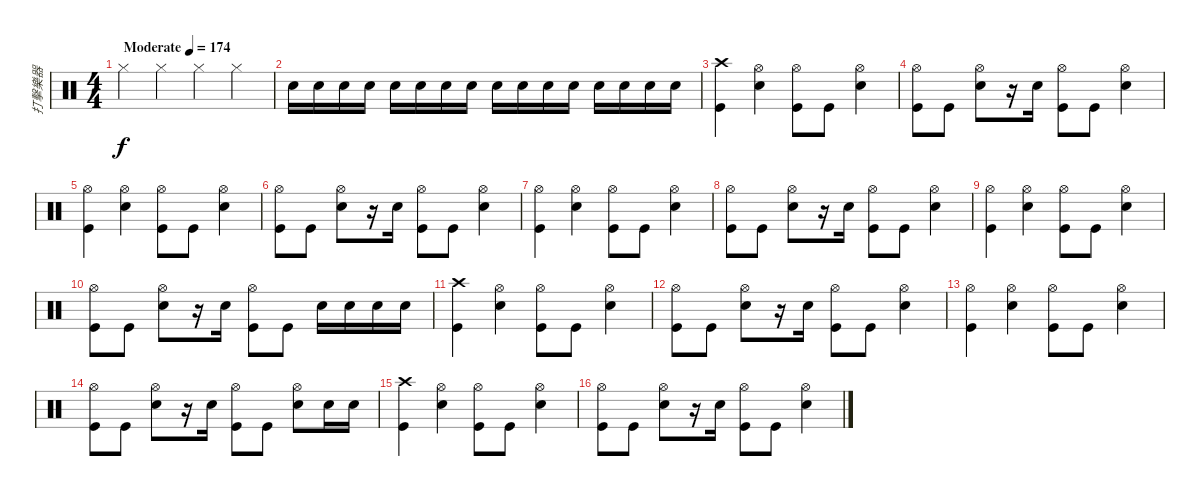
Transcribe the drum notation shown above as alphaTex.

\track ("打擊樂器" "打擊樂器") {instrument percussion}
\staff {score}
\articulation defaults
\ts (4 4)
\tempo (174 "Moderate")
\clef neutral
\ks c "Hi-Hat (closed)".4{dy f} "Hi-Hat (closed)".4 "Hi-Hat (closed)".4 "Hi-Hat (closed)".4
|
"Snare (hit) 2".16 "Snare (hit) 2".16 "Snare (hit) 2".16 "Snare (hit) 2".16 "Snare (hit) 2".16 "Snare (hit) 2".16 "Snare (hit) 2".16 "Snare (hit) 2".16 "Snare (hit) 2".16 "Snare (hit) 2".16 "Snare (hit) 2".16 "Snare (hit) 2".16 "Snare (hit) 2".16 "Snare (hit) 2".16 "Snare (hit) 2".16 "Snare (hit) 2".16 |
("Crash high (hit)" "Kick (hit)").4 ("Hi-Hat (open)" "Snare (hit) 2").4 ("Kick (hit)" "Hi-Hat (open)").8 "Kick (hit)".8 ("Hi-Hat (open)" "Snare (hit) 2").4 |
("Hi-Hat (open)" "Kick (hit)").8 "Kick (hit)".8 ("Hi-Hat (open)" "Snare (hit) 2").8 r.16 "Snare (hit) 2".16 ("Hi-Hat (open)" "Kick (hit)").8 "Kick (hit)".8 ("Hi-Hat (open)" "Snare (hit) 2").4 |
("Hi-Hat (open)" "Kick (hit)").4 ("Hi-Hat (open)" "Snare (hit) 2").4 ("Kick (hit)" "Hi-Hat (open)").8 "Kick (hit)".8 ("Hi-Hat (open)" "Snare (hit) 2").4 |
("Hi-Hat (open)" "Kick (hit)").8 "Kick (hit)".8 ("Hi-Hat (open)" "Snare (hit) 2").8 r.16 "Snare (hit) 2".16 ("Hi-Hat (open)" "Kick (hit)").8 "Kick (hit)".8 ("Hi-Hat (open)" "Snare (hit) 2").4 |
("Hi-Hat (open)" "Kick (hit)").4 ("Hi-Hat (open)" "Snare (hit) 2").4 ("Kick (hit)" "Hi-Hat (open)").8 "Kick (hit)".8 ("Hi-Hat (open)" "Snare (hit) 2").4 |
("Hi-Hat (open)" "Kick (hit)").8 "Kick (hit)".8 ("Hi-Hat (open)" "Snare (hit) 2").8 r.16 "Snare (hit) 2".16 ("Hi-Hat (open)" "Kick (hit)").8 "Kick (hit)".8 ("Hi-Hat (open)" "Snare (hit) 2").4 |
("Hi-Hat (open)" "Kick (hit)").4 ("Hi-Hat (open)" "Snare (hit) 2").4 ("Kick (hit)" "Hi-Hat (open)").8 "Kick (hit)".8 ("Hi-Hat (open)" "Snare (hit) 2").4 |
("Hi-Hat (open)" "Kick (hit)").8 "Kick (hit)".8 ("Hi-Hat (open)" "Snare (hit) 2").8 r.16 "Snare (hit) 2".16 ("Hi-Hat (open)" "Kick (hit)").8 "Kick (hit)".8 "Snare (hit) 2".16 "Snare (hit) 2".16 "Snare (hit) 2".16 "Snare (hit) 2".16 |
("Crash high (hit)" "Kick (hit)").4 ("Hi-Hat (open)" "Snare (hit) 2").4 ("Kick (hit)" "Hi-Hat (open)").8 "Kick (hit)".8 ("Hi-Hat (open)" "Snare (hit) 2").4 |
("Hi-Hat (open)" "Kick (hit)").8 "Kick (hit)".8 ("Hi-Hat (open)" "Snare (hit) 2").8 r.16 "Snare (hit) 2".16 ("Hi-Hat (open)" "Kick (hit)").8 "Kick (hit)".8 ("Hi-Hat (open)" "Snare (hit) 2").4 |
("Hi-Hat (open)" "Kick (hit)").4 ("Hi-Hat (open)" "Snare (hit) 2").4 ("Kick (hit)" "Hi-Hat (open)").8 "Kick (hit)".8 ("Hi-Hat (open)" "Snare (hit) 2").4 |
("Hi-Hat (open)" "Kick (hit)").8 "Kick (hit)".8 ("Hi-Hat (open)" "Snare (hit) 2").8 r.16 "Snare (hit) 2".16 ("Hi-Hat (open)" "Kick (hit)").8 "Kick (hit)".8 ("Hi-Hat (open)" "Snare (hit) 2").8 "Snare (hit) 2".16 "Snare (hit) 2".16 |
("Crash high (hit)" "Kick (hit)").4 ("Hi-Hat (open)" "Snare (hit) 2").4 ("Kick (hit)" "Hi-Hat (open)").8 "Kick (hit)".8 ("Hi-Hat (open)" "Snare (hit) 2").4 |
("Hi-Hat (open)" "Kick (hit)").8 "Kick (hit)".8 ("Hi-Hat (open)" "Snare (hit) 2").8 r.16 "Snare (hit) 2".16 ("Hi-Hat (open)" "Kick (hit)").8 "Kick (hit)".8 ("Hi-Hat (open)" "Snare (hit) 2").4
